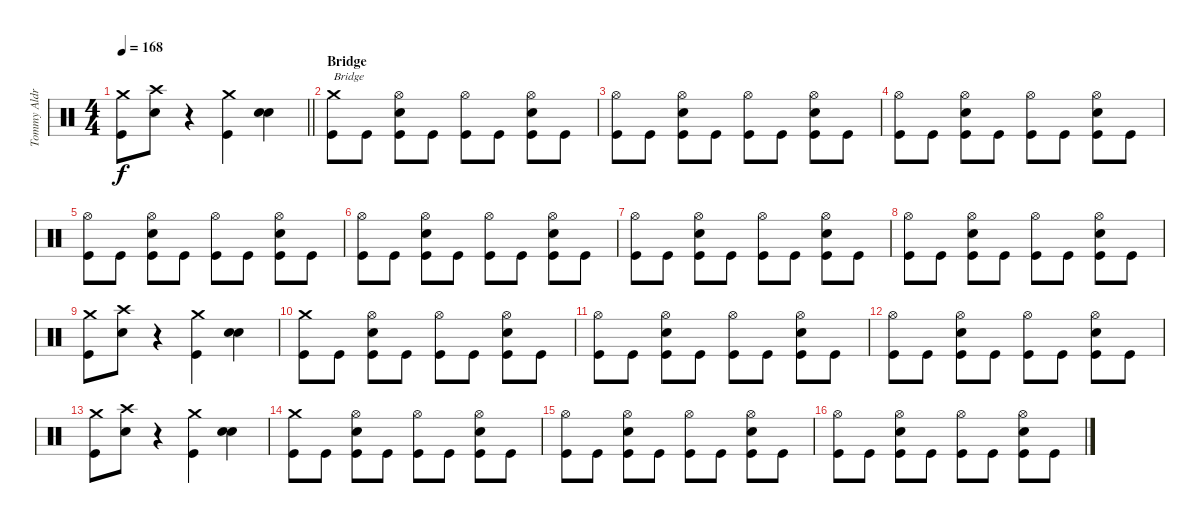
\track ("Tommy Aldrige" "Tommy Aldr") {instrument percussion}
\staff {score}
\articulation defaults
\ts (4 4)
\tempo 168
\clef neutral
\barLineRight lightlight
\ks c
("Crash medium (hit)" "Kick (hit)").8{dy f} ("Crash high (hit)" "Snare (hit) 2").8 r.4 ("Crash medium (hit)" "Kick (hit)").4 ("Snare (hit) 2" "Snare (hit) 2").4{bd 240} |
\section ("" "Bridge")
("Crash medium (hit)" "Kick (hit)").8{txt "Bridge"} "Kick (hit)".8 ("Hi-Hat (open)" "Snare (hit) 2" "Kick (hit)").8 "Kick (hit)".8 ("Hi-Hat (open)" "Kick (hit)").8 "Kick (hit)".8 ("Hi-Hat (open)" "Snare (hit) 2" "Kick (hit)").8 "Kick (hit)".8 |
("Hi-Hat (open)" "Kick (hit)").8 "Kick (hit)".8 ("Hi-Hat (open)" "Snare (hit) 2" "Kick (hit)").8 "Kick (hit)".8 ("Hi-Hat (open)" "Kick (hit)").8 "Kick (hit)".8 ("Hi-Hat (open)" "Snare (hit) 2" "Kick (hit)").8 "Kick (hit)".8 |
("Hi-Hat (open)" "Kick (hit)").8 "Kick (hit)".8 ("Hi-Hat (open)" "Snare (hit) 2" "Kick (hit)").8 "Kick (hit)".8 ("Hi-Hat (open)" "Kick (hit)").8 "Kick (hit)".8 ("Hi-Hat (open)" "Snare (hit) 2" "Kick (hit)").8 "Kick (hit)".8 |
("Hi-Hat (open)" "Kick (hit)").8 "Kick (hit)".8 ("Hi-Hat (open)" "Snare (hit) 2" "Kick (hit)").8 "Kick (hit)".8 ("Hi-Hat (open)" "Kick (hit)").8 "Kick (hit)".8 ("Hi-Hat (open)" "Snare (hit) 2" "Kick (hit)").8 "Kick (hit)".8 |
("Hi-Hat (open)" "Kick (hit)").8 "Kick (hit)".8 ("Hi-Hat (open)" "Snare (hit) 2" "Kick (hit)").8 "Kick (hit)".8 ("Hi-Hat (open)" "Kick (hit)").8 "Kick (hit)".8 ("Hi-Hat (open)" "Snare (hit) 2" "Kick (hit)").8 "Kick (hit)".8 |
("Hi-Hat (open)" "Kick (hit)").8 "Kick (hit)".8 ("Hi-Hat (open)" "Snare (hit) 2" "Kick (hit)").8 "Kick (hit)".8 ("Hi-Hat (open)" "Kick (hit)").8 "Kick (hit)".8 ("Hi-Hat (open)" "Snare (hit) 2" "Kick (hit)").8 "Kick (hit)".8 |
("Hi-Hat (open)" "Kick (hit)").8 "Kick (hit)".8 ("Hi-Hat (open)" "Snare (hit) 2" "Kick (hit)").8 "Kick (hit)".8 ("Hi-Hat (open)" "Kick (hit)").8 "Kick (hit)".8 ("Hi-Hat (open)" "Snare (hit) 2" "Kick (hit)").8 "Kick (hit)".8 |
("Crash medium (hit)" "Kick (hit)").8 ("Crash high (hit)" "Snare (hit) 2").8 r.4 ("Crash medium (hit)" "Kick (hit)").4 ("Snare (hit) 2" "Snare (hit) 2").4{bd 240} |
("Crash medium (hit)" "Kick (hit)").8 "Kick (hit)".8 ("Hi-Hat (open)" "Snare (hit) 2" "Kick (hit)").8 "Kick (hit)".8 ("Hi-Hat (open)" "Kick (hit)").8 "Kick (hit)".8 ("Hi-Hat (open)" "Snare (hit) 2" "Kick (hit)").8 "Kick (hit)".8 |
("Hi-Hat (open)" "Kick (hit)").8 "Kick (hit)".8 ("Hi-Hat (open)" "Snare (hit) 2" "Kick (hit)").8 "Kick (hit)".8 ("Hi-Hat (open)" "Kick (hit)").8 "Kick (hit)".8 ("Hi-Hat (open)" "Snare (hit) 2" "Kick (hit)").8 "Kick (hit)".8 |
("Hi-Hat (open)" "Kick (hit)").8 "Kick (hit)".8 ("Hi-Hat (open)" "Snare (hit) 2" "Kick (hit)").8 "Kick (hit)".8 ("Hi-Hat (open)" "Kick (hit)").8 "Kick (hit)".8 ("Hi-Hat (open)" "Snare (hit) 2" "Kick (hit)").8 "Kick (hit)".8 |
("Crash medium (hit)" "Kick (hit)").8 ("Crash high (hit)" "Snare (hit) 2").8 r.4 ("Crash medium (hit)" "Kick (hit)").4 ("Snare (hit) 2" "Snare (hit) 2").4{bd 240} |
("Crash medium (hit)" "Kick (hit)").8 "Kick (hit)".8 ("Hi-Hat (open)" "Snare (hit) 2" "Kick (hit)").8 "Kick (hit)".8 ("Hi-Hat (open)" "Kick (hit)").8 "Kick (hit)".8 ("Hi-Hat (open)" "Snare (hit) 2" "Kick (hit)").8 "Kick (hit)".8 |
("Hi-Hat (open)" "Kick (hit)").8 "Kick (hit)".8 ("Hi-Hat (open)" "Snare (hit) 2" "Kick (hit)").8 "Kick (hit)".8 ("Hi-Hat (open)" "Kick (hit)").8 "Kick (hit)".8 ("Hi-Hat (open)" "Snare (hit) 2" "Kick (hit)").8 "Kick (hit)".8 |
("Hi-Hat (open)" "Kick (hit)").8 "Kick (hit)".8 ("Hi-Hat (open)" "Snare (hit) 2" "Kick (hit)").8 "Kick (hit)".8 ("Hi-Hat (open)" "Kick (hit)").8 "Kick (hit)".8 ("Hi-Hat (open)" "Snare (hit) 2" "Kick (hit)").8 "Kick (hit)".8
